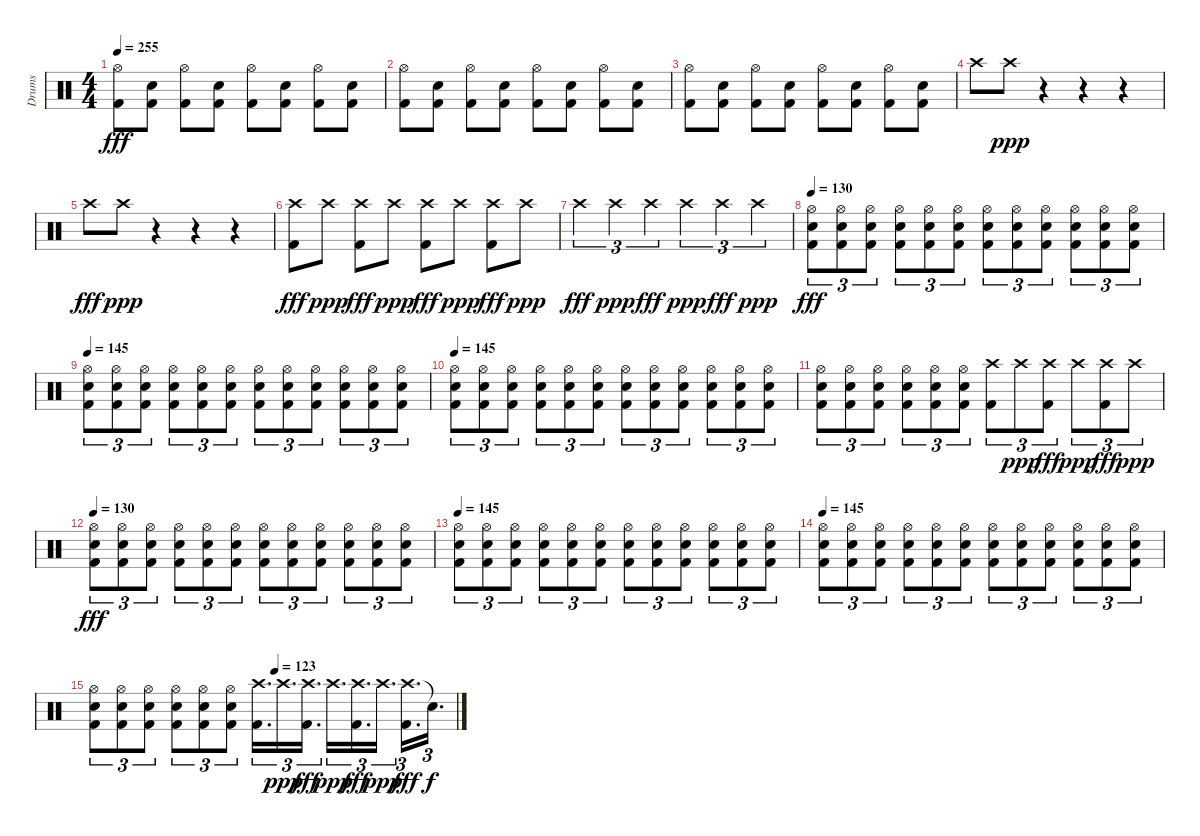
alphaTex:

\track ("Drums" "Drums") {instrument percussion}
\staff {score}
\articulation defaults
\ts (4 4)
\tempo 255
\clef neutral
\ks c
("Hi-Hat (open)" "Kick (hit) 2").8{dy fff} ("Electric Snare (hit)" "Kick (hit) 2").8 ("Hi-Hat (open)" "Kick (hit) 2").8 ("Electric Snare (hit)" "Kick (hit) 2").8 ("Hi-Hat (open)" "Kick (hit) 2").8 ("Electric Snare (hit)" "Kick (hit) 2").8 ("Hi-Hat (open)" "Kick (hit) 2").8 ("Electric Snare (hit)" "Kick (hit) 2").8 |
("Hi-Hat (open)" "Kick (hit) 2").8 ("Electric Snare (hit)" "Kick (hit) 2").8 ("Hi-Hat (open)" "Kick (hit) 2").8 ("Electric Snare (hit)" "Kick (hit) 2").8 ("Hi-Hat (open)" "Kick (hit) 2").8 ("Electric Snare (hit)" "Kick (hit) 2").8 ("Hi-Hat (open)" "Kick (hit) 2").8 ("Electric Snare (hit)" "Kick (hit) 2").8 |
("Hi-Hat (open)" "Kick (hit) 2").8 ("Electric Snare (hit)" "Kick (hit) 2").8 ("Hi-Hat (open)" "Kick (hit) 2").8 ("Electric Snare (hit)" "Kick (hit) 2").8 ("Hi-Hat (open)" "Kick (hit) 2").8 ("Electric Snare (hit)" "Kick (hit) 2").8 ("Hi-Hat (open)" "Kick (hit) 2").8 ("Electric Snare (hit)" "Kick (hit) 2").8 |
"Crash high (hit)".8 "Crash high (hit)".8{dy ppp} r.4 r.4 r.4 |
"Crash high (hit)".8{dy fff} "Crash high (hit)".8{dy ppp} r.4 r.4 r.4 |
("Crash high (hit)" "Kick (hit) 2").8{dy fff} "Crash high (hit)".8{dy ppp} ("Crash high (hit)" "Kick (hit) 2").8{dy fff} "Crash high (hit)".8{dy ppp} ("Crash high (hit)" "Kick (hit) 2").8{dy fff} "Crash high (hit)".8{dy ppp} ("Crash high (hit)" "Kick (hit) 2").8{dy fff} "Crash high (hit)".8{dy ppp} |
"Crash high (hit)".4{tu (3 2) dy fff} "Crash high (hit)".4{tu (3 2) dy ppp} "Crash high (hit)".4{tu (3 2) dy fff} "Crash high (hit)".4{tu (3 2) dy ppp} "Crash high (hit)".4{tu (3 2) dy fff} "Crash high (hit)".4{tu (3 2) dy ppp} |
\tempo 130
("Hi-Hat (open)" "Electric Snare (hit)" "Kick (hit) 2").8{tu (3 2) dy fff} ("Hi-Hat (open)" "Electric Snare (hit)" "Kick (hit) 2").8{tu (3 2)} ("Hi-Hat (open)" "Electric Snare (hit)" "Kick (hit) 2").8{tu (3 2)} ("Hi-Hat (open)" "Electric Snare (hit)" "Kick (hit) 2").8{tu (3 2)} ("Hi-Hat (open)" "Electric Snare (hit)" "Kick (hit) 2").8{tu (3 2)} ("Hi-Hat (open)" "Electric Snare (hit)" "Kick (hit) 2").8{tu (3 2)} ("Hi-Hat (open)" "Electric Snare (hit)" "Kick (hit) 2").8{tu (3 2)} ("Hi-Hat (open)" "Electric Snare (hit)" "Kick (hit) 2").8{tu (3 2)} ("Hi-Hat (open)" "Electric Snare (hit)" "Kick (hit) 2").8{tu (3 2)} ("Hi-Hat (open)" "Electric Snare (hit)" "Kick (hit) 2").8{tu (3 2)} ("Hi-Hat (open)" "Electric Snare (hit)" "Kick (hit) 2").8{tu (3 2)} ("Hi-Hat (open)" "Electric Snare (hit)" "Kick (hit) 2").8{tu (3 2)} |
\tempo 145
("Hi-Hat (open)" "Electric Snare (hit)" "Kick (hit) 2").8{tu (3 2)} ("Hi-Hat (open)" "Electric Snare (hit)" "Kick (hit) 2").8{tu (3 2)} ("Hi-Hat (open)" "Electric Snare (hit)" "Kick (hit) 2").8{tu (3 2)} ("Hi-Hat (open)" "Electric Snare (hit)" "Kick (hit) 2").8{tu (3 2)} ("Hi-Hat (open)" "Electric Snare (hit)" "Kick (hit) 2").8{tu (3 2)} ("Hi-Hat (open)" "Electric Snare (hit)" "Kick (hit) 2").8{tu (3 2)} ("Hi-Hat (open)" "Electric Snare (hit)" "Kick (hit) 2").8{tu (3 2)} ("Hi-Hat (open)" "Electric Snare (hit)" "Kick (hit) 2").8{tu (3 2)} ("Hi-Hat (open)" "Electric Snare (hit)" "Kick (hit) 2").8{tu (3 2)} ("Hi-Hat (open)" "Electric Snare (hit)" "Kick (hit) 2").8{tu (3 2)} ("Hi-Hat (open)" "Electric Snare (hit)" "Kick (hit) 2").8{tu (3 2)} ("Hi-Hat (open)" "Electric Snare (hit)" "Kick (hit) 2").8{tu (3 2)} |
\tempo 145
("Hi-Hat (open)" "Electric Snare (hit)" "Kick (hit) 2").8{tu (3 2)} ("Hi-Hat (open)" "Electric Snare (hit)" "Kick (hit) 2").8{tu (3 2)} ("Hi-Hat (open)" "Electric Snare (hit)" "Kick (hit) 2").8{tu (3 2)} ("Hi-Hat (open)" "Electric Snare (hit)" "Kick (hit) 2").8{tu (3 2)} ("Hi-Hat (open)" "Electric Snare (hit)" "Kick (hit) 2").8{tu (3 2)} ("Hi-Hat (open)" "Electric Snare (hit)" "Kick (hit) 2").8{tu (3 2)} ("Hi-Hat (open)" "Electric Snare (hit)" "Kick (hit) 2").8{tu (3 2)} ("Hi-Hat (open)" "Electric Snare (hit)" "Kick (hit) 2").8{tu (3 2)} ("Hi-Hat (open)" "Electric Snare (hit)" "Kick (hit) 2").8{tu (3 2)} ("Hi-Hat (open)" "Electric Snare (hit)" "Kick (hit) 2").8{tu (3 2)} ("Hi-Hat (open)" "Electric Snare (hit)" "Kick (hit) 2").8{tu (3 2)} ("Hi-Hat (open)" "Electric Snare (hit)" "Kick (hit) 2").8{tu (3 2)} |
("Hi-Hat (open)" "Electric Snare (hit)" "Kick (hit) 2").8{tu (3 2)} ("Hi-Hat (open)" "Electric Snare (hit)" "Kick (hit) 2").8{tu (3 2)} ("Hi-Hat (open)" "Electric Snare (hit)" "Kick (hit) 2").8{tu (3 2)} ("Hi-Hat (open)" "Electric Snare (hit)" "Kick (hit) 2").8{tu (3 2)} ("Hi-Hat (open)" "Electric Snare (hit)" "Kick (hit) 2").8{tu (3 2)} ("Hi-Hat (open)" "Electric Snare (hit)" "Kick (hit) 2").8{tu (3 2)} ("Crash high (hit)" "Kick (hit) 2").8{tu (3 2)} "Crash high (hit)".8{tu (3 2) dy ppp} ("Crash high (hit)" "Kick (hit) 2").8{tu (3 2) dy fff} "Crash high (hit)".8{tu (3 2) dy ppp} ("Crash high (hit)" "Kick (hit) 2").8{tu (3 2) dy fff} "Crash high (hit)".8{tu (3 2) dy ppp} |
\tempo 130
("Hi-Hat (open)" "Electric Snare (hit)" "Kick (hit) 2").8{tu (3 2) dy fff} ("Hi-Hat (open)" "Electric Snare (hit)" "Kick (hit) 2").8{tu (3 2)} ("Hi-Hat (open)" "Electric Snare (hit)" "Kick (hit) 2").8{tu (3 2)} ("Hi-Hat (open)" "Electric Snare (hit)" "Kick (hit) 2").8{tu (3 2)} ("Hi-Hat (open)" "Electric Snare (hit)" "Kick (hit) 2").8{tu (3 2)} ("Hi-Hat (open)" "Electric Snare (hit)" "Kick (hit) 2").8{tu (3 2)} ("Hi-Hat (open)" "Electric Snare (hit)" "Kick (hit) 2").8{tu (3 2)} ("Hi-Hat (open)" "Electric Snare (hit)" "Kick (hit) 2").8{tu (3 2)} ("Hi-Hat (open)" "Electric Snare (hit)" "Kick (hit) 2").8{tu (3 2)} ("Hi-Hat (open)" "Electric Snare (hit)" "Kick (hit) 2").8{tu (3 2)} ("Hi-Hat (open)" "Electric Snare (hit)" "Kick (hit) 2").8{tu (3 2)} ("Hi-Hat (open)" "Electric Snare (hit)" "Kick (hit) 2").8{tu (3 2)} |
\tempo 145
("Hi-Hat (open)" "Electric Snare (hit)" "Kick (hit) 2").8{tu (3 2)} ("Hi-Hat (open)" "Electric Snare (hit)" "Kick (hit) 2").8{tu (3 2)} ("Hi-Hat (open)" "Electric Snare (hit)" "Kick (hit) 2").8{tu (3 2)} ("Hi-Hat (open)" "Electric Snare (hit)" "Kick (hit) 2").8{tu (3 2)} ("Hi-Hat (open)" "Electric Snare (hit)" "Kick (hit) 2").8{tu (3 2)} ("Hi-Hat (open)" "Electric Snare (hit)" "Kick (hit) 2").8{tu (3 2)} ("Hi-Hat (open)" "Electric Snare (hit)" "Kick (hit) 2").8{tu (3 2)} ("Hi-Hat (open)" "Electric Snare (hit)" "Kick (hit) 2").8{tu (3 2)} ("Hi-Hat (open)" "Electric Snare (hit)" "Kick (hit) 2").8{tu (3 2)} ("Hi-Hat (open)" "Electric Snare (hit)" "Kick (hit) 2").8{tu (3 2)} ("Hi-Hat (open)" "Electric Snare (hit)" "Kick (hit) 2").8{tu (3 2)} ("Hi-Hat (open)" "Electric Snare (hit)" "Kick (hit) 2").8{tu (3 2)} |
\tempo 145
("Hi-Hat (open)" "Electric Snare (hit)" "Kick (hit) 2").8{tu (3 2)} ("Hi-Hat (open)" "Electric Snare (hit)" "Kick (hit) 2").8{tu (3 2)} ("Hi-Hat (open)" "Electric Snare (hit)" "Kick (hit) 2").8{tu (3 2)} ("Hi-Hat (open)" "Electric Snare (hit)" "Kick (hit) 2").8{tu (3 2)} ("Hi-Hat (open)" "Electric Snare (hit)" "Kick (hit) 2").8{tu (3 2)} ("Hi-Hat (open)" "Electric Snare (hit)" "Kick (hit) 2").8{tu (3 2)} ("Hi-Hat (open)" "Electric Snare (hit)" "Kick (hit) 2").8{tu (3 2)} ("Hi-Hat (open)" "Electric Snare (hit)" "Kick (hit) 2").8{tu (3 2)} ("Hi-Hat (open)" "Electric Snare (hit)" "Kick (hit) 2").8{tu (3 2)} ("Hi-Hat (open)" "Electric Snare (hit)" "Kick (hit) 2").8{tu (3 2)} ("Hi-Hat (open)" "Electric Snare (hit)" "Kick (hit) 2").8{tu (3 2)} ("Hi-Hat (open)" "Electric Snare (hit)" "Kick (hit) 2").8{tu (3 2)} |
\tempo (123 0.5)
("Hi-Hat (open)" "Electric Snare (hit)" "Kick (hit) 2").8{tu (3 2)} ("Hi-Hat (open)" "Electric Snare (hit)" "Kick (hit) 2").8{tu (3 2)} ("Hi-Hat (open)" "Electric Snare (hit)" "Kick (hit) 2").8{tu (3 2)} ("Hi-Hat (open)" "Electric Snare (hit)" "Kick (hit) 2").8{tu (3 2)} ("Hi-Hat (open)" "Electric Snare (hit)" "Kick (hit) 2").8{tu (3 2)} ("Hi-Hat (open)" "Electric Snare (hit)" "Kick (hit) 2").8{tu (3 2)} ("Crash high (hit)" "Kick (hit) 2").16{d tu (3 2)} "Crash high (hit)".16{d tu (3 2) dy ppp} ("Crash high (hit)" "Kick (hit) 2").16{d tu (3 2) dy fff} "Crash high (hit)".16{d tu (3 2) dy ppp} ("Crash high (hit)" "Kick (hit) 2").16{d tu (3 2) dy fff} "Crash high (hit)".16{d tu (3 2) dy ppp} ("Crash high (hit)" "Kick (hit) 2").16{d tu (3 2) dy fff} "Snare (hit)"{t}.16{d tu (3 2) dy f}
